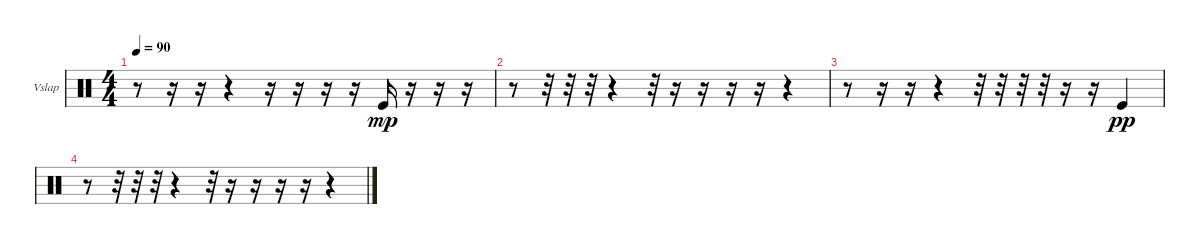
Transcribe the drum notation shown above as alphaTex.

\defaultSystemsLayout 4
\bracketExtendMode groupsimilarinstruments
\firstSystemTrackNameOrientation horizontal
\otherSystemsTrackNameOrientation horizontal
\track ("Vibraslap" "Vslap") {instrument percussion}
\staff {score}
\articulation defaults
\ts (4 4)
\tempo 90
\clef neutral
\scale
0.333333
\ks c
r.8{dy f} r.16 r.16 r.4 r.16 r.16 r.16 r.16 "Kick (hit)".16{dy mp} r.16 r.16 r.16 |
\scale
0.333333 r.8 r.32 r.32 r.32 r.4 r.32 r.16 r.16 r.16 r.16 r.4 |
\scale
0.333333 r.8 r.16 r.16 r.4 r.32 r.32 r.32 r.32 r.16 r.16 "Kick (hit)".4{dy pp} |
\scale
0.333333 r.8 r.32 r.32 r.32 r.4 r.32 r.16 r.16 r.16 r.16 r.4 |
\scale
0.333333 |
\scale
0.333333 |
\scale
0.333333 |
\scale
0.333333 |
\scale
0.333333 |
\scale
0.333333 |
\scale
0.333333 |
\scale
0.333333 |
\scale
0.333333 |
\scale
0.333333 |
\scale
0.333333 |
\scale
0.333333
